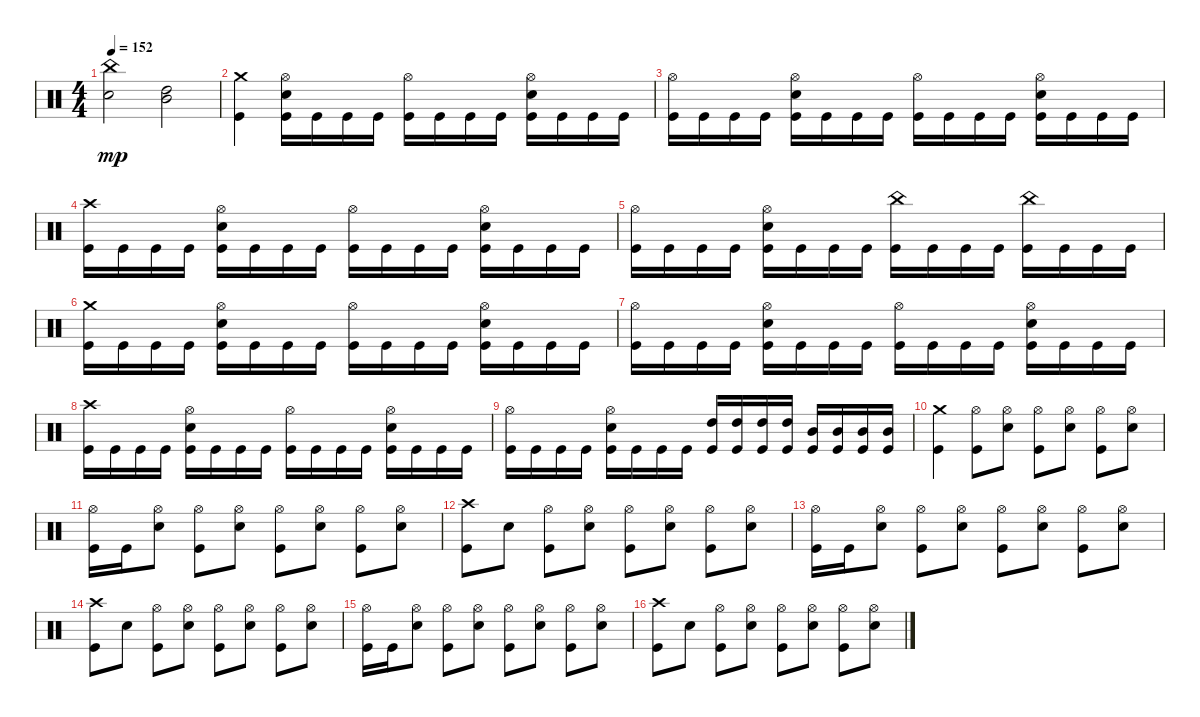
\track "" {instrument percussion}
\staff {score}
\articulation defaults
\ts (4 4)
\tempo 152
\clef neutral
\ks c
("China (hit)" "Snare (hit) 2").2{dy mp} ("Mid Tom (hit)" "High Tom (hit)").2 |
("Kick (hit)" "Crash medium (hit)").4 ("Kick (hit)" "Snare (hit) 2" "Hi-Hat (open)").16 "Kick (hit)".16 "Kick (hit)".16 "Kick (hit)".16 ("Kick (hit)" "Hi-Hat (open)").16 "Kick (hit)".16 "Kick (hit)".16 "Kick (hit)".16 ("Kick (hit)" "Snare (hit) 2" "Hi-Hat (open)").16 "Kick (hit)".16 "Kick (hit)".16 "Kick (hit)".16 |
("Kick (hit)" "Hi-Hat (open)").16 "Kick (hit)".16 "Kick (hit)".16 "Kick (hit)".16 ("Kick (hit)" "Snare (hit) 2" "Hi-Hat (open)").16 "Kick (hit)".16 "Kick (hit)".16 "Kick (hit)".16 ("Kick (hit)" "Hi-Hat (open)").16 "Kick (hit)".16 "Kick (hit)".16 "Kick (hit)".16 ("Kick (hit)" "Snare (hit) 2" "Hi-Hat (open)").16 "Kick (hit)".16 "Kick (hit)".16 "Kick (hit)".16 |
("Kick (hit)" "Crash high (hit)").16 "Kick (hit)".16 "Kick (hit)".16 "Kick (hit)".16 ("Kick (hit)" "Snare (hit) 2" "Hi-Hat (open)").16 "Kick (hit)".16 "Kick (hit)".16 "Kick (hit)".16 ("Kick (hit)" "Hi-Hat (open)").16 "Kick (hit)".16 "Kick (hit)".16 "Kick (hit)".16 ("Kick (hit)" "Snare (hit) 2" "Hi-Hat (open)").16 "Kick (hit)".16 "Kick (hit)".16 "Kick (hit)".16 |
("Kick (hit)" "Hi-Hat (open)").16 "Kick (hit)".16 "Kick (hit)".16 "Kick (hit)".16 ("Kick (hit)" "Snare (hit) 2" "Hi-Hat (open)").16 "Kick (hit)".16 "Kick (hit)".16 "Kick (hit)".16 ("Kick (hit)" "China (hit)").16 "Kick (hit)".16 "Kick (hit)".16 "Kick (hit)".16 ("Kick (hit)" "China (hit)").16 "Kick (hit)".16 "Kick (hit)".16 "Kick (hit)".16 |
("Kick (hit)" "Crash medium (hit)").16 "Kick (hit)".16 "Kick (hit)".16 "Kick (hit)".16 ("Kick (hit)" "Snare (hit) 2" "Hi-Hat (open)").16 "Kick (hit)".16 "Kick (hit)".16 "Kick (hit)".16 ("Kick (hit)" "Hi-Hat (open)").16 "Kick (hit)".16 "Kick (hit)".16 "Kick (hit)".16 ("Kick (hit)" "Snare (hit) 2" "Hi-Hat (open)").16 "Kick (hit)".16 "Kick (hit)".16 "Kick (hit)".16 |
("Kick (hit)" "Hi-Hat (open)").16 "Kick (hit)".16 "Kick (hit)".16 "Kick (hit)".16 ("Kick (hit)" "Snare (hit) 2" "Hi-Hat (open)").16 "Kick (hit)".16 "Kick (hit)".16 "Kick (hit)".16 ("Kick (hit)" "Hi-Hat (open)").16 "Kick (hit)".16 "Kick (hit)".16 "Kick (hit)".16 ("Kick (hit)" "Snare (hit) 2" "Hi-Hat (open)").16 "Kick (hit)".16 "Kick (hit)".16 "Kick (hit)".16 |
("Kick (hit)" "Crash high (hit)").16 "Kick (hit)".16 "Kick (hit)".16 "Kick (hit)".16 ("Kick (hit)" "Snare (hit) 2" "Hi-Hat (open)").16 "Kick (hit)".16 "Kick (hit)".16 "Kick (hit)".16 ("Kick (hit)" "Hi-Hat (open)").16 "Kick (hit)".16 "Kick (hit)".16 "Kick (hit)".16 ("Kick (hit)" "Snare (hit) 2" "Hi-Hat (open)").16 "Kick (hit)".16 "Kick (hit)".16 "Kick (hit)".16 |
("Kick (hit)" "Hi-Hat (open)").16 "Kick (hit)".16 "Kick (hit)".16 "Kick (hit)".16 ("Kick (hit)" "Snare (hit) 2" "Hi-Hat (open)").16 "Kick (hit)".16 "Kick (hit)".16 "Kick (hit)".16 ("Kick (hit)" "High Tom (hit)").16 ("Kick (hit)" "High Tom (hit)").16 ("Kick (hit)" "High Tom (hit)").16 ("Kick (hit)" "High Tom (hit)").16 ("Kick (hit)" "Mid Tom (hit)").16 ("Kick (hit)" "Mid Tom (hit)").16 ("Kick (hit)" "Mid Tom (hit)").16 ("Kick (hit)" "Mid Tom (hit)").16 |
("Kick (hit)" "Crash medium (hit)").4 ("Kick (hit)" "Hi-Hat (open)").8 ("Snare (hit) 2" "Hi-Hat (open)").8 ("Kick (hit)" "Hi-Hat (open)").8 ("Snare (hit) 2" "Hi-Hat (open)").8 ("Kick (hit)" "Hi-Hat (open)").8 ("Snare (hit) 2" "Hi-Hat (open)").8 |
("Kick (hit)" "Hi-Hat (open)").16 "Kick (hit)".16 ("Snare (hit) 2" "Hi-Hat (open)").8 ("Kick (hit)" "Hi-Hat (open)").8 ("Snare (hit) 2" "Hi-Hat (open)").8 ("Kick (hit)" "Hi-Hat (open)").8 ("Snare (hit) 2" "Hi-Hat (open)").8 ("Kick (hit)" "Hi-Hat (open)").8 ("Snare (hit) 2" "Hi-Hat (open)").8 |
("Kick (hit)" "Crash high (hit)").8 "Snare (hit) 2".8 ("Kick (hit)" "Hi-Hat (open)").8 ("Snare (hit) 2" "Hi-Hat (open)").8 ("Kick (hit)" "Hi-Hat (open)").8 ("Snare (hit) 2" "Hi-Hat (open)").8 ("Kick (hit)" "Hi-Hat (open)").8 ("Snare (hit) 2" "Hi-Hat (open)").8 |
("Kick (hit)" "Hi-Hat (open)").16 "Kick (hit)".16 ("Snare (hit) 2" "Hi-Hat (open)").8 ("Kick (hit)" "Hi-Hat (open)").8 ("Snare (hit) 2" "Hi-Hat (open)").8 ("Kick (hit)" "Hi-Hat (open)").8 ("Snare (hit) 2" "Hi-Hat (open)").8 ("Kick (hit)" "Hi-Hat (open)").8 ("Snare (hit) 2" "Hi-Hat (open)").8 |
("Kick (hit)" "Crash high (hit)").8 "Snare (hit) 2".8 ("Kick (hit)" "Hi-Hat (open)").8 ("Snare (hit) 2" "Hi-Hat (open)").8 ("Kick (hit)" "Hi-Hat (open)").8 ("Snare (hit) 2" "Hi-Hat (open)").8 ("Kick (hit)" "Hi-Hat (open)").8 ("Snare (hit) 2" "Hi-Hat (open)").8 |
("Kick (hit)" "Hi-Hat (open)").16 "Kick (hit)".16 ("Snare (hit) 2" "Hi-Hat (open)").8 ("Kick (hit)" "Hi-Hat (open)").8 ("Snare (hit) 2" "Hi-Hat (open)").8 ("Kick (hit)" "Hi-Hat (open)").8 ("Snare (hit) 2" "Hi-Hat (open)").8 ("Kick (hit)" "Hi-Hat (open)").8 ("Snare (hit) 2" "Hi-Hat (open)").8 |
("Kick (hit)" "Crash high (hit)").8 "Snare (hit) 2".8 ("Kick (hit)" "Hi-Hat (open)").8 ("Snare (hit) 2" "Hi-Hat (open)").8 ("Kick (hit)" "Hi-Hat (open)").8 ("Snare (hit) 2" "Hi-Hat (open)").8 ("Kick (hit)" "Hi-Hat (open)").8 ("Snare (hit) 2" "Hi-Hat (open)").8
